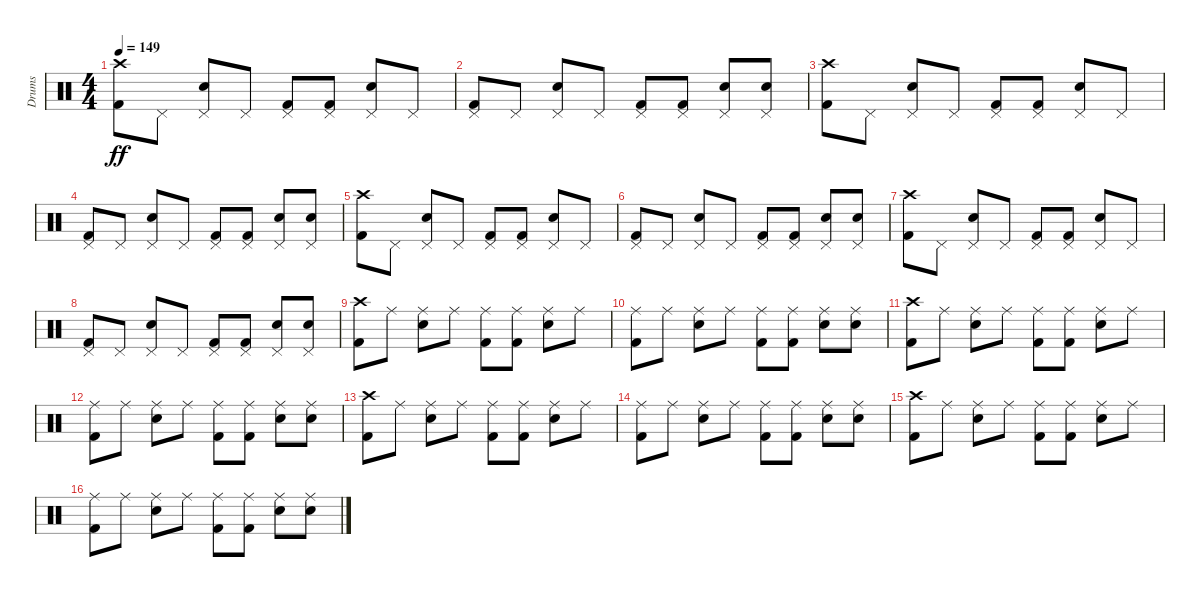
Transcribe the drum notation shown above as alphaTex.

\track ("Drums" "Drums") {instrument percussion}
\staff {score}
\articulation defaults
\ts (4 4)
\tempo 149
\clef neutral
\ks c
("Kick (hit) 2" "Crash high (hit)").8{dy ff} "Pedal Hi-Hat (hit)".8 ("Snare (hit) 2" "Pedal Hi-Hat (hit)").8 "Pedal Hi-Hat (hit)".8 ("Kick (hit) 2" "Pedal Hi-Hat (hit)").8 ("Kick (hit) 2" "Pedal Hi-Hat (hit)").8 ("Snare (hit) 2" "Pedal Hi-Hat (hit)").8 "Pedal Hi-Hat (hit)".8 |
("Kick (hit) 2" "Pedal Hi-Hat (hit)").8 "Pedal Hi-Hat (hit)".8 ("Snare (hit) 2" "Pedal Hi-Hat (hit)").8 "Pedal Hi-Hat (hit)".8 ("Kick (hit) 2" "Pedal Hi-Hat (hit)").8 ("Kick (hit) 2" "Pedal Hi-Hat (hit)").8 ("Snare (hit) 2" "Pedal Hi-Hat (hit)").8 ("Snare (hit) 2" "Pedal Hi-Hat (hit)").8 |
("Kick (hit) 2" "Crash high (hit)").8 "Pedal Hi-Hat (hit)".8 ("Snare (hit) 2" "Pedal Hi-Hat (hit)").8 "Pedal Hi-Hat (hit)".8 ("Kick (hit) 2" "Pedal Hi-Hat (hit)").8 ("Kick (hit) 2" "Pedal Hi-Hat (hit)").8 ("Snare (hit) 2" "Pedal Hi-Hat (hit)").8 "Pedal Hi-Hat (hit)".8 |
("Kick (hit) 2" "Pedal Hi-Hat (hit)").8 "Pedal Hi-Hat (hit)".8 ("Snare (hit) 2" "Pedal Hi-Hat (hit)").8 "Pedal Hi-Hat (hit)".8 ("Kick (hit) 2" "Pedal Hi-Hat (hit)").8 ("Kick (hit) 2" "Pedal Hi-Hat (hit)").8 ("Snare (hit) 2" "Pedal Hi-Hat (hit)").8 ("Snare (hit) 2" "Pedal Hi-Hat (hit)").8 |
("Kick (hit) 2" "Crash high (hit)").8 "Pedal Hi-Hat (hit)".8 ("Snare (hit) 2" "Pedal Hi-Hat (hit)").8 "Pedal Hi-Hat (hit)".8 ("Kick (hit) 2" "Pedal Hi-Hat (hit)").8 ("Kick (hit) 2" "Pedal Hi-Hat (hit)").8 ("Snare (hit) 2" "Pedal Hi-Hat (hit)").8 "Pedal Hi-Hat (hit)".8 |
("Kick (hit) 2" "Pedal Hi-Hat (hit)").8 "Pedal Hi-Hat (hit)".8 ("Snare (hit) 2" "Pedal Hi-Hat (hit)").8 "Pedal Hi-Hat (hit)".8 ("Kick (hit) 2" "Pedal Hi-Hat (hit)").8 ("Kick (hit) 2" "Pedal Hi-Hat (hit)").8 ("Snare (hit) 2" "Pedal Hi-Hat (hit)").8 ("Snare (hit) 2" "Pedal Hi-Hat (hit)").8 |
("Kick (hit) 2" "Crash high (hit)").8 "Pedal Hi-Hat (hit)".8 ("Snare (hit) 2" "Pedal Hi-Hat (hit)").8 "Pedal Hi-Hat (hit)".8 ("Kick (hit) 2" "Pedal Hi-Hat (hit)").8 ("Kick (hit) 2" "Pedal Hi-Hat (hit)").8 ("Snare (hit) 2" "Pedal Hi-Hat (hit)").8 "Pedal Hi-Hat (hit)".8 |
("Kick (hit) 2" "Pedal Hi-Hat (hit)").8 "Pedal Hi-Hat (hit)".8 ("Snare (hit) 2" "Pedal Hi-Hat (hit)").8 "Pedal Hi-Hat (hit)".8 ("Kick (hit) 2" "Pedal Hi-Hat (hit)").8 ("Kick (hit) 2" "Pedal Hi-Hat (hit)").8 ("Snare (hit) 2" "Pedal Hi-Hat (hit)").8 ("Snare (hit) 2" "Pedal Hi-Hat (hit)").8 |
("Kick (hit) 2" "Crash high (hit)").8 "Ride (middle)".8 ("Snare (hit) 2" "Ride (middle)").8 "Ride (middle)".8 ("Kick (hit) 2" "Ride (middle)").8 ("Kick (hit) 2" "Ride (middle)").8 ("Snare (hit) 2" "Ride (middle)").8 "Ride (middle)".8 |
("Kick (hit) 2" "Ride (middle)").8 "Ride (middle)".8 ("Snare (hit) 2" "Ride (middle)").8 "Ride (middle)".8 ("Kick (hit) 2" "Ride (middle)").8 ("Kick (hit) 2" "Ride (middle)").8 ("Snare (hit) 2" "Ride (middle)").8 ("Snare (hit) 2" "Ride (middle)").8 |
("Kick (hit) 2" "Crash high (hit)").8 "Ride (middle)".8 ("Snare (hit) 2" "Ride (middle)").8 "Ride (middle)".8 ("Kick (hit) 2" "Ride (middle)").8 ("Kick (hit) 2" "Ride (middle)").8 ("Snare (hit) 2" "Ride (middle)").8 "Ride (middle)".8 |
("Kick (hit) 2" "Ride (middle)").8 "Ride (middle)".8 ("Snare (hit) 2" "Ride (middle)").8 "Ride (middle)".8 ("Kick (hit) 2" "Ride (middle)").8 ("Kick (hit) 2" "Ride (middle)").8 ("Snare (hit) 2" "Ride (middle)").8 ("Snare (hit) 2" "Ride (middle)").8 |
("Kick (hit) 2" "Crash high (hit)").8 "Ride (middle)".8 ("Snare (hit) 2" "Ride (middle)").8 "Ride (middle)".8 ("Kick (hit) 2" "Ride (middle)").8 ("Kick (hit) 2" "Ride (middle)").8 ("Snare (hit) 2" "Ride (middle)").8 "Ride (middle)".8 |
("Kick (hit) 2" "Ride (middle)").8 "Ride (middle)".8 ("Snare (hit) 2" "Ride (middle)").8 "Ride (middle)".8 ("Kick (hit) 2" "Ride (middle)").8 ("Kick (hit) 2" "Ride (middle)").8 ("Snare (hit) 2" "Ride (middle)").8 ("Snare (hit) 2" "Ride (middle)").8 |
("Kick (hit) 2" "Crash high (hit)").8 "Ride (middle)".8 ("Snare (hit) 2" "Ride (middle)").8 "Ride (middle)".8 ("Kick (hit) 2" "Ride (middle)").8 ("Kick (hit) 2" "Ride (middle)").8 ("Snare (hit) 2" "Ride (middle)").8 "Ride (middle)".8 |
("Kick (hit) 2" "Ride (middle)").8 "Ride (middle)".8 ("Snare (hit) 2" "Ride (middle)").8 "Ride (middle)".8 ("Kick (hit) 2" "Ride (middle)").8 ("Kick (hit) 2" "Ride (middle)").8 ("Snare (hit) 2" "Ride (middle)").8 ("Snare (hit) 2" "Ride (middle)").8
